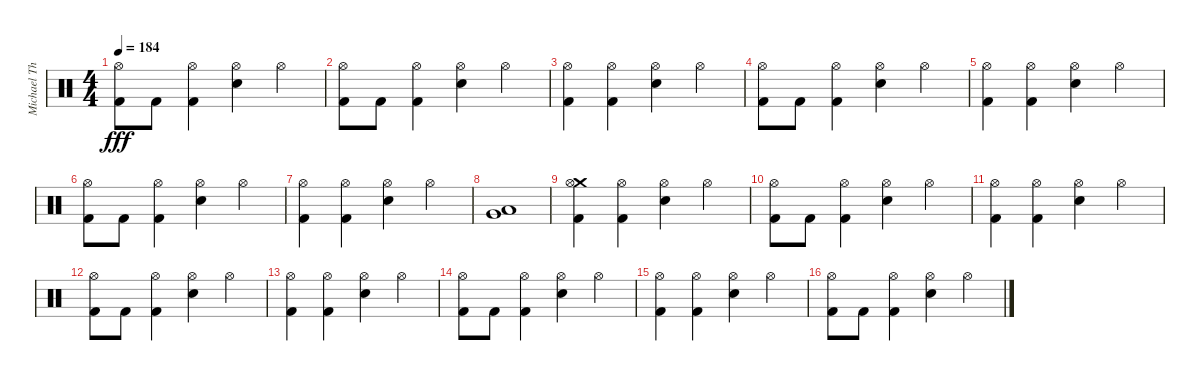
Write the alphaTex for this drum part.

\track ("Michael Thomas" "Michael Th") {instrument percussion}
\staff {score}
\articulation defaults
\ts (4 4)
\tempo 184
\clef neutral
\ks c
("Hi-Hat (open)" "Kick (hit) 2").8{dy fff} "Kick (hit) 2".8 ("Hi-Hat (open)" "Kick (hit) 2").4 ("Hi-Hat (open)" "Snare (hit) 2").4 "Hi-Hat (open)".4 |
("Hi-Hat (open)" "Kick (hit) 2").8 "Kick (hit) 2".8 ("Hi-Hat (open)" "Kick (hit) 2").4 ("Hi-Hat (open)" "Snare (hit) 2").4 "Hi-Hat (open)".4 |
("Hi-Hat (open)" "Kick (hit) 2").4 ("Hi-Hat (open)" "Kick (hit) 2").4 ("Hi-Hat (open)" "Snare (hit) 2").4 "Hi-Hat (open)".4 |
("Hi-Hat (open)" "Kick (hit) 2").8 "Kick (hit) 2".8 ("Hi-Hat (open)" "Kick (hit) 2").4 ("Hi-Hat (open)" "Snare (hit) 2").4 "Hi-Hat (open)".4 |
("Hi-Hat (open)" "Kick (hit) 2").4 ("Hi-Hat (open)" "Kick (hit) 2").4 ("Hi-Hat (open)" "Snare (hit) 2").4 "Hi-Hat (open)".4 |
("Hi-Hat (open)" "Kick (hit) 2").8 "Kick (hit) 2".8 ("Hi-Hat (open)" "Kick (hit) 2").4 ("Hi-Hat (open)" "Snare (hit) 2").4 "Hi-Hat (open)".4 |
("Hi-Hat (open)" "Kick (hit) 2").4 ("Hi-Hat (open)" "Kick (hit) 2").4 ("Hi-Hat (open)" "Snare (hit) 2").4 "Hi-Hat (open)".4 |
("Very Low Tom (hit)" "Low Floor Tom (hit)").1 |
("Crash medium (hit)" "Hi-Hat (open)" "Kick (hit) 2").4 ("Hi-Hat (open)" "Kick (hit) 2").4 ("Hi-Hat (open)" "Snare (hit) 2").4 "Hi-Hat (open)".4 |
("Hi-Hat (open)" "Kick (hit) 2").8 "Kick (hit) 2".8 ("Hi-Hat (open)" "Kick (hit) 2").4 ("Hi-Hat (open)" "Snare (hit) 2").4 "Hi-Hat (open)".4 |
("Hi-Hat (open)" "Kick (hit) 2").4 ("Hi-Hat (open)" "Kick (hit) 2").4 ("Hi-Hat (open)" "Snare (hit) 2").4 "Hi-Hat (open)".4 |
("Hi-Hat (open)" "Kick (hit) 2").8 "Kick (hit) 2".8 ("Hi-Hat (open)" "Kick (hit) 2").4 ("Hi-Hat (open)" "Snare (hit) 2").4 "Hi-Hat (open)".4 |
("Hi-Hat (open)" "Kick (hit) 2").4 ("Hi-Hat (open)" "Kick (hit) 2").4 ("Hi-Hat (open)" "Snare (hit) 2").4 "Hi-Hat (open)".4 |
("Hi-Hat (open)" "Kick (hit) 2").8 "Kick (hit) 2".8 ("Hi-Hat (open)" "Kick (hit) 2").4 ("Hi-Hat (open)" "Snare (hit) 2").4 "Hi-Hat (open)".4 |
("Hi-Hat (open)" "Kick (hit) 2").4 ("Hi-Hat (open)" "Kick (hit) 2").4 ("Hi-Hat (open)" "Snare (hit) 2").4 "Hi-Hat (open)".4 |
("Hi-Hat (open)" "Kick (hit) 2").8 "Kick (hit) 2".8 ("Hi-Hat (open)" "Kick (hit) 2").4 ("Hi-Hat (open)" "Snare (hit) 2").4 "Hi-Hat (open)".4
